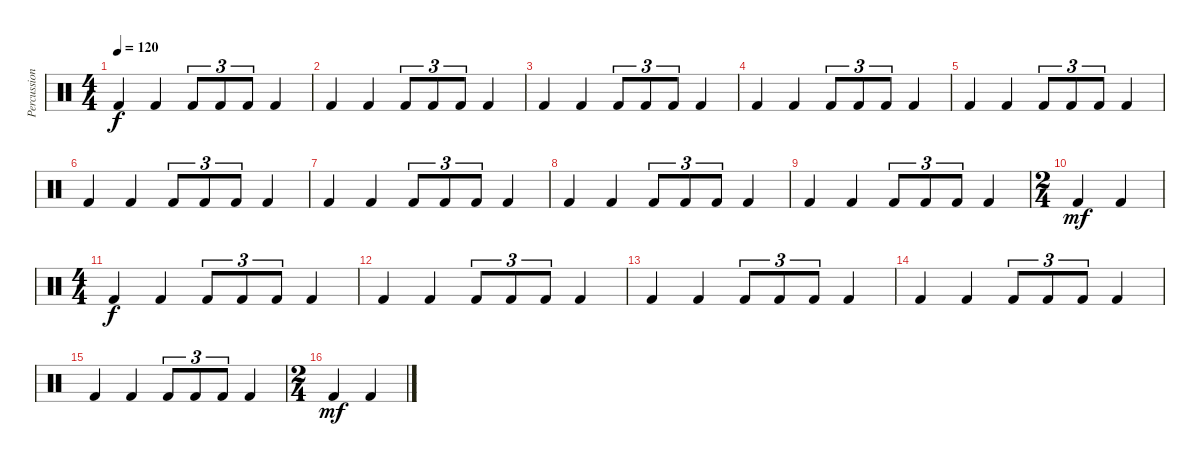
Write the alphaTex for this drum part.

\track ("Percussion" "Percussion") {instrument percussion}
\staff {score}
\articulation defaults
\ts (4 4)
\tempo 120
\clef neutral
\ks c "Kick (hit) 2".4{dy f} "Kick (hit) 2".4 "Kick (hit) 2".8{tu (3 2)} "Kick (hit) 2".8{tu (3 2)} "Kick (hit) 2".8{tu (3 2)} "Kick (hit) 2".4
|
"Kick (hit) 2".4 "Kick (hit) 2".4 "Kick (hit) 2".8{tu (3 2)} "Kick (hit) 2".8{tu (3 2)} "Kick (hit) 2".8{tu (3 2)} "Kick (hit) 2".4 |
"Kick (hit) 2".4 "Kick (hit) 2".4 "Kick (hit) 2".8{tu (3 2)} "Kick (hit) 2".8{tu (3 2)} "Kick (hit) 2".8{tu (3 2)} "Kick (hit) 2".4 |
"Kick (hit) 2".4 "Kick (hit) 2".4 "Kick (hit) 2".8{tu (3 2)} "Kick (hit) 2".8{tu (3 2)} "Kick (hit) 2".8{tu (3 2)} "Kick (hit) 2".4 |
"Kick (hit) 2".4 "Kick (hit) 2".4 "Kick (hit) 2".8{tu (3 2)} "Kick (hit) 2".8{tu (3 2)} "Kick (hit) 2".8{tu (3 2)} "Kick (hit) 2".4 |
"Kick (hit) 2".4 "Kick (hit) 2".4 "Kick (hit) 2".8{tu (3 2)} "Kick (hit) 2".8{tu (3 2)} "Kick (hit) 2".8{tu (3 2)} "Kick (hit) 2".4 |
"Kick (hit) 2".4 "Kick (hit) 2".4 "Kick (hit) 2".8{tu (3 2)} "Kick (hit) 2".8{tu (3 2)} "Kick (hit) 2".8{tu (3 2)} "Kick (hit) 2".4 |
"Kick (hit) 2".4 "Kick (hit) 2".4 "Kick (hit) 2".8{tu (3 2)} "Kick (hit) 2".8{tu (3 2)} "Kick (hit) 2".8{tu (3 2)} "Kick (hit) 2".4 |
"Kick (hit) 2".4 "Kick (hit) 2".4 "Kick (hit) 2".8{tu (3 2)} "Kick (hit) 2".8{tu (3 2)} "Kick (hit) 2".8{tu (3 2)} "Kick (hit) 2".4 |
\ts (2 4)
"Kick (hit) 2".4{dy mf} "Kick (hit) 2".4 |
\ts (4 4)
"Kick (hit) 2".4{dy f} "Kick (hit) 2".4 "Kick (hit) 2".8{tu (3 2)} "Kick (hit) 2".8{tu (3 2)} "Kick (hit) 2".8{tu (3 2)} "Kick (hit) 2".4 |
"Kick (hit) 2".4 "Kick (hit) 2".4 "Kick (hit) 2".8{tu (3 2)} "Kick (hit) 2".8{tu (3 2)} "Kick (hit) 2".8{tu (3 2)} "Kick (hit) 2".4 |
"Kick (hit) 2".4 "Kick (hit) 2".4 "Kick (hit) 2".8{tu (3 2)} "Kick (hit) 2".8{tu (3 2)} "Kick (hit) 2".8{tu (3 2)} "Kick (hit) 2".4 |
"Kick (hit) 2".4 "Kick (hit) 2".4 "Kick (hit) 2".8{tu (3 2)} "Kick (hit) 2".8{tu (3 2)} "Kick (hit) 2".8{tu (3 2)} "Kick (hit) 2".4 |
"Kick (hit) 2".4 "Kick (hit) 2".4 "Kick (hit) 2".8{tu (3 2)} "Kick (hit) 2".8{tu (3 2)} "Kick (hit) 2".8{tu (3 2)} "Kick (hit) 2".4 |
\ts (2 4)
"Kick (hit) 2".4{dy mf} "Kick (hit) 2".4
